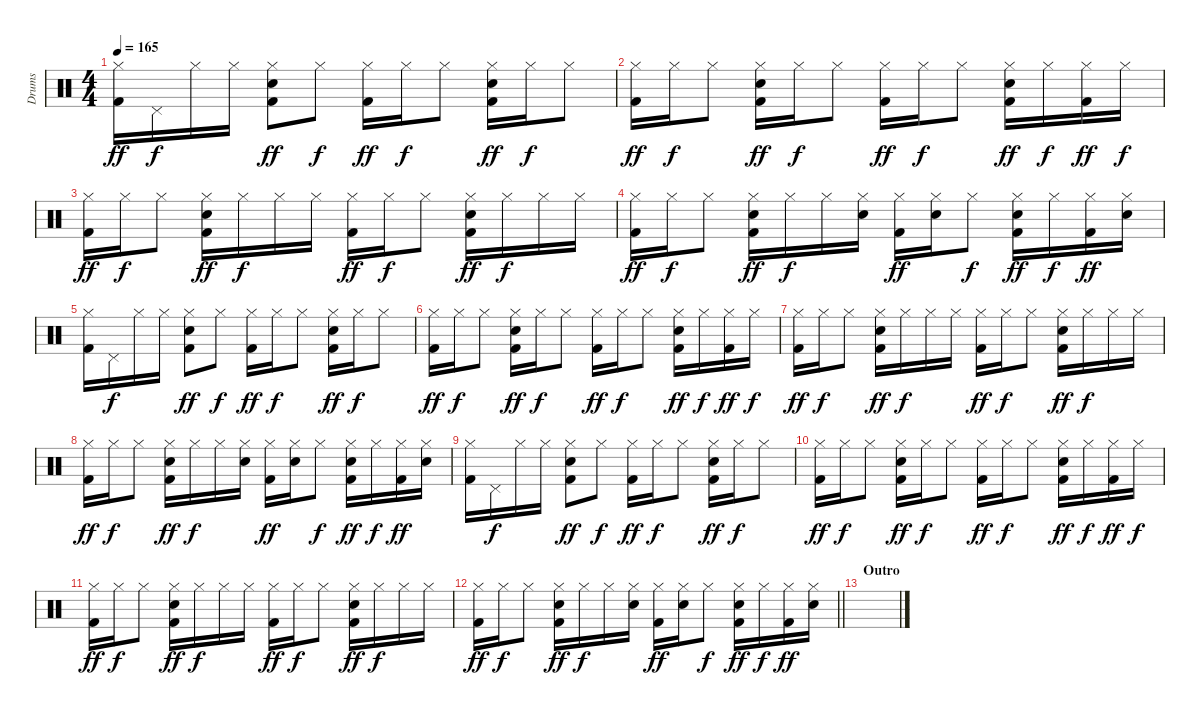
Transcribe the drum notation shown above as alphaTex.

\track ("Drums" "Drums") {instrument percussion}
\staff {score}
\articulation defaults
\ts (4 4)
\tempo 165
\clef neutral
\ks c
("Kick (hit) 2" "Hi-Hat (closed)").16{dy ff} "Pedal Hi-Hat (hit)".16{dy f} "Hi-Hat (closed)".16 "Hi-Hat (closed)".16 ("Kick (hit) 2" "Snare (hit) 2" "Hi-Hat (closed)").8{dy ff} "Hi-Hat (closed)".8{dy f} ("Kick (hit) 2" "Hi-Hat (closed)").16{dy ff} "Hi-Hat (closed)".16{dy f} "Hi-Hat (closed)".8 ("Kick (hit) 2" "Snare (hit) 2" "Hi-Hat (closed)").16{dy ff} "Hi-Hat (closed)".16{dy f} "Hi-Hat (closed)".8 |
("Kick (hit) 2" "Hi-Hat (closed)").16{dy ff} "Hi-Hat (closed)".16{dy f} "Hi-Hat (closed)".8 ("Kick (hit) 2" "Snare (hit) 2" "Hi-Hat (closed)").16{dy ff} "Hi-Hat (closed)".16{dy f} "Hi-Hat (closed)".8 ("Kick (hit) 2" "Hi-Hat (closed)").16{dy ff} "Hi-Hat (closed)".16{dy f} "Hi-Hat (closed)".8 ("Kick (hit) 2" "Snare (hit) 2" "Hi-Hat (closed)").16{dy ff} "Hi-Hat (closed)".16{dy f} ("Kick (hit) 2" "Hi-Hat (closed)").16{dy ff} "Hi-Hat (closed)".16{dy f} |
("Kick (hit) 2" "Hi-Hat (closed)").16{dy ff} "Hi-Hat (closed)".16{dy f} "Hi-Hat (closed)".8 ("Kick (hit) 2" "Snare (hit) 2" "Hi-Hat (closed)").16{dy ff} "Hi-Hat (closed)".16{dy f} "Hi-Hat (closed)".16 "Hi-Hat (closed)".16 ("Kick (hit) 2" "Hi-Hat (closed)").16{dy ff} "Hi-Hat (closed)".16{dy f} "Hi-Hat (closed)".8 ("Kick (hit) 2" "Snare (hit) 2" "Hi-Hat (closed)").16{dy ff} "Hi-Hat (closed)".16{dy f} "Hi-Hat (closed)".16 "Hi-Hat (closed)".16 |
("Kick (hit) 2" "Hi-Hat (closed)").16{dy ff} "Hi-Hat (closed)".16{dy f} "Hi-Hat (closed)".8 ("Kick (hit) 2" "Snare (hit) 2" "Hi-Hat (closed)").16{dy ff} "Hi-Hat (closed)".16{dy f} "Hi-Hat (closed)".16 ("Snare (hit) 2" "Hi-Hat (closed)").16 ("Kick (hit) 2" "Hi-Hat (closed)").16{dy ff} ("Snare (hit) 2" "Hi-Hat (closed)").16 "Hi-Hat (closed)".8{dy f} ("Kick (hit) 2" "Snare (hit) 2" "Hi-Hat (closed)").16{dy ff} "Hi-Hat (closed)".16{dy f} ("Kick (hit) 2" "Hi-Hat (closed)").16{dy ff} ("Snare (hit) 2" "Hi-Hat (closed)").16 |
("Kick (hit) 2" "Hi-Hat (closed)").16 "Pedal Hi-Hat (hit)".16{dy f} "Hi-Hat (closed)".16 "Hi-Hat (closed)".16 ("Kick (hit) 2" "Snare (hit) 2" "Hi-Hat (closed)").8{dy ff} "Hi-Hat (closed)".8{dy f} ("Kick (hit) 2" "Hi-Hat (closed)").16{dy ff} "Hi-Hat (closed)".16{dy f} "Hi-Hat (closed)".8 ("Kick (hit) 2" "Snare (hit) 2" "Hi-Hat (closed)").16{dy ff} "Hi-Hat (closed)".16{dy f} "Hi-Hat (closed)".8 |
("Kick (hit) 2" "Hi-Hat (closed)").16{dy ff} "Hi-Hat (closed)".16{dy f} "Hi-Hat (closed)".8 ("Kick (hit) 2" "Snare (hit) 2" "Hi-Hat (closed)").16{dy ff} "Hi-Hat (closed)".16{dy f} "Hi-Hat (closed)".8 ("Kick (hit) 2" "Hi-Hat (closed)").16{dy ff} "Hi-Hat (closed)".16{dy f} "Hi-Hat (closed)".8 ("Kick (hit) 2" "Snare (hit) 2" "Hi-Hat (closed)").16{dy ff} "Hi-Hat (closed)".16{dy f} ("Kick (hit) 2" "Hi-Hat (closed)").16{dy ff} "Hi-Hat (closed)".16{dy f} |
("Kick (hit) 2" "Hi-Hat (closed)").16{dy ff} "Hi-Hat (closed)".16{dy f} "Hi-Hat (closed)".8 ("Kick (hit) 2" "Snare (hit) 2" "Hi-Hat (closed)").16{dy ff} "Hi-Hat (closed)".16{dy f} "Hi-Hat (closed)".16 "Hi-Hat (closed)".16 ("Kick (hit) 2" "Hi-Hat (closed)").16{dy ff} "Hi-Hat (closed)".16{dy f} "Hi-Hat (closed)".8 ("Kick (hit) 2" "Snare (hit) 2" "Hi-Hat (closed)").16{dy ff} "Hi-Hat (closed)".16{dy f} "Hi-Hat (closed)".16 "Hi-Hat (closed)".16 |
("Kick (hit) 2" "Hi-Hat (closed)").16{dy ff} "Hi-Hat (closed)".16{dy f} "Hi-Hat (closed)".8 ("Kick (hit) 2" "Snare (hit) 2" "Hi-Hat (closed)").16{dy ff} "Hi-Hat (closed)".16{dy f} "Hi-Hat (closed)".16 ("Snare (hit) 2" "Hi-Hat (closed)").16 ("Kick (hit) 2" "Hi-Hat (closed)").16{dy ff} ("Snare (hit) 2" "Hi-Hat (closed)").16 "Hi-Hat (closed)".8{dy f} ("Kick (hit) 2" "Snare (hit) 2" "Hi-Hat (closed)").16{dy ff} "Hi-Hat (closed)".16{dy f} ("Kick (hit) 2" "Hi-Hat (closed)").16{dy ff} ("Snare (hit) 2" "Hi-Hat (closed)").16 |
("Kick (hit) 2" "Hi-Hat (closed)").16 "Pedal Hi-Hat (hit)".16{dy f} "Hi-Hat (closed)".16 "Hi-Hat (closed)".16 ("Kick (hit) 2" "Snare (hit) 2" "Hi-Hat (closed)").8{dy ff} "Hi-Hat (closed)".8{dy f} ("Kick (hit) 2" "Hi-Hat (closed)").16{dy ff} "Hi-Hat (closed)".16{dy f} "Hi-Hat (closed)".8 ("Kick (hit) 2" "Snare (hit) 2" "Hi-Hat (closed)").16{dy ff} "Hi-Hat (closed)".16{dy f} "Hi-Hat (closed)".8 |
("Kick (hit) 2" "Hi-Hat (closed)").16{dy ff} "Hi-Hat (closed)".16{dy f} "Hi-Hat (closed)".8 ("Kick (hit) 2" "Snare (hit) 2" "Hi-Hat (closed)").16{dy ff} "Hi-Hat (closed)".16{dy f} "Hi-Hat (closed)".8 ("Kick (hit) 2" "Hi-Hat (closed)").16{dy ff} "Hi-Hat (closed)".16{dy f} "Hi-Hat (closed)".8 ("Kick (hit) 2" "Snare (hit) 2" "Hi-Hat (closed)").16{dy ff} "Hi-Hat (closed)".16{dy f} ("Kick (hit) 2" "Hi-Hat (closed)").16{dy ff} "Hi-Hat (closed)".16{dy f} |
("Kick (hit) 2" "Hi-Hat (closed)").16{dy ff} "Hi-Hat (closed)".16{dy f} "Hi-Hat (closed)".8 ("Kick (hit) 2" "Snare (hit) 2" "Hi-Hat (closed)").16{dy ff} "Hi-Hat (closed)".16{dy f} "Hi-Hat (closed)".16 "Hi-Hat (closed)".16 ("Kick (hit) 2" "Hi-Hat (closed)").16{dy ff} "Hi-Hat (closed)".16{dy f} "Hi-Hat (closed)".8 ("Kick (hit) 2" "Snare (hit) 2" "Hi-Hat (closed)").16{dy ff} "Hi-Hat (closed)".16{dy f} "Hi-Hat (closed)".16 "Hi-Hat (closed)".16 |
\barLineRight lightlight
("Kick (hit) 2" "Hi-Hat (closed)").16{dy ff} "Hi-Hat (closed)".16{dy f} "Hi-Hat (closed)".8 ("Kick (hit) 2" "Snare (hit) 2" "Hi-Hat (closed)").16{dy ff} "Hi-Hat (closed)".16{dy f} "Hi-Hat (closed)".16 ("Snare (hit) 2" "Hi-Hat (closed)").16 ("Kick (hit) 2" "Hi-Hat (closed)").16{dy ff} ("Snare (hit) 2" "Hi-Hat (closed)").16 "Hi-Hat (closed)".8{dy f} ("Kick (hit) 2" "Snare (hit) 2" "Hi-Hat (closed)").16{dy ff} "Hi-Hat (closed)".16{dy f} ("Kick (hit) 2" "Hi-Hat (closed)").16{dy ff} ("Snare (hit) 2" "Hi-Hat (closed)").16 |
\section ("" "Outro")
